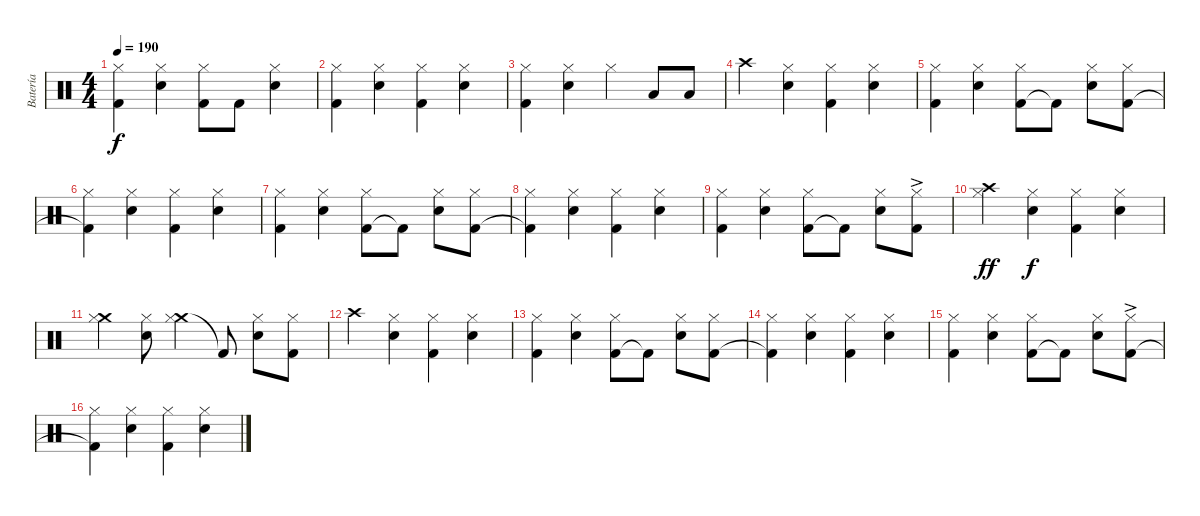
\track ("Batería" "Batería") {instrument percussion}
\staff {score}
\articulation defaults
\ts (4 4)
\tempo 190
\clef neutral
\ks c
("Kick (hit) 2" "Hi-Hat (closed)").4{dy f} ("Electric Snare (hit)" "Hi-Hat (closed)").4 ("Kick (hit) 2" "Hi-Hat (closed)").8 "Kick (hit) 2".8 ("Electric Snare (hit)" "Hi-Hat (closed)").4 |
("Kick (hit) 2" "Hi-Hat (closed)").4 ("Snare (hit) 2" "Hi-Hat (closed)").4 ("Kick (hit) 2" "Hi-Hat (closed)").4 ("Snare (hit) 2" "Hi-Hat (closed)").4 |
("Kick (hit) 2" "Hi-Hat (closed)").4 ("Snare (hit) 2" "Hi-Hat (closed)").4 "Hi-Hat (closed)".4 "Low Floor Tom (hit)".8 "Low Floor Tom (hit)".8 |
"Crash high (hit)".4 ("Electric Snare (hit)" "Hi-Hat (closed)").4 ("Kick (hit) 2" "Hi-Hat (closed)").4 ("Electric Snare (hit)" "Hi-Hat (closed)").4 |
("Kick (hit) 2" "Hi-Hat (closed)").4 ("Electric Snare (hit)" "Hi-Hat (closed)").4 ("Kick (hit) 2" "Hi-Hat (closed)").8 "Kick (hit) 2"{t}.8 ("Electric Snare (hit)" "Hi-Hat (closed)").8 ("Kick (hit) 2" "Hi-Hat (closed)").8 |
("Kick (hit) 2"{t} "Hi-Hat (closed)").4 ("Electric Snare (hit)" "Hi-Hat (closed)").4 ("Kick (hit) 2" "Hi-Hat (closed)").4 ("Electric Snare (hit)" "Hi-Hat (closed)").4 |
("Kick (hit) 2" "Hi-Hat (closed)").4 ("Electric Snare (hit)" "Hi-Hat (closed)").4 ("Kick (hit) 2" "Hi-Hat (closed)").8 "Kick (hit) 2"{t}.8 ("Electric Snare (hit)" "Hi-Hat (closed)").8 ("Kick (hit) 2" "Hi-Hat (closed)").8 |
("Kick (hit) 2"{t} "Hi-Hat (closed)").4 ("Electric Snare (hit)" "Hi-Hat (closed)").4 ("Kick (hit) 2" "Hi-Hat (closed)").4 ("Electric Snare (hit)" "Hi-Hat (closed)").4 |
("Kick (hit) 2" "Hi-Hat (closed)").4 ("Electric Snare (hit)" "Hi-Hat (closed)").4 ("Kick (hit) 2" "Hi-Hat (closed)").8 "Kick (hit) 2"{t}.8 ("Electric Snare (hit)" "Hi-Hat (closed)").8 ("Kick (hit) 2"{ac} "Hi-Hat (closed)").8 |
("Crash high (hit)" "Hi-Hat (closed)").4{dy ff} ("Electric Snare (hit)" "Hi-Hat (closed)").4{dy f} ("Kick (hit) 2" "Hi-Hat (closed)").4 ("Electric Snare (hit)" "Hi-Hat (closed)").4 |
("Crash medium (hit)" "Hi-Hat (closed)").4 ("Electric Snare (hit)" "Hi-Hat (closed)").8 ("Crash medium (hit)" "Hi-Hat (closed)").4 "Kick (hit) 2"{t}.8 ("Electric Snare (hit)" "Hi-Hat (closed)").8 ("Kick (hit) 2" "Hi-Hat (closed)").8 |
"Crash high (hit)".4 ("Electric Snare (hit)" "Hi-Hat (closed)").4 ("Kick (hit) 2" "Hi-Hat (closed)").4 ("Electric Snare (hit)" "Hi-Hat (closed)").4 |
("Kick (hit) 2" "Hi-Hat (closed)").4 ("Electric Snare (hit)" "Hi-Hat (closed)").4 ("Kick (hit) 2" "Hi-Hat (closed)").8 "Kick (hit) 2"{t}.8 ("Electric Snare (hit)" "Hi-Hat (closed)").8 ("Kick (hit) 2" "Hi-Hat (closed)").8 |
("Kick (hit) 2"{t} "Hi-Hat (closed)").4 ("Electric Snare (hit)" "Hi-Hat (closed)").4 ("Kick (hit) 2" "Hi-Hat (closed)").4 ("Electric Snare (hit)" "Hi-Hat (closed)").4 |
("Kick (hit) 2" "Hi-Hat (closed)").4 ("Electric Snare (hit)" "Hi-Hat (closed)").4 ("Kick (hit) 2" "Hi-Hat (closed)").8 "Kick (hit) 2"{t}.8 ("Electric Snare (hit)" "Hi-Hat (closed)").8 ("Kick (hit) 2"{ac} "Hi-Hat (closed)").8 |
("Kick (hit) 2"{t} "Hi-Hat (closed)").4 ("Electric Snare (hit)" "Hi-Hat (closed)").4 ("Kick (hit) 2" "Hi-Hat (closed)").4 ("Electric Snare (hit)" "Hi-Hat (closed)").4
